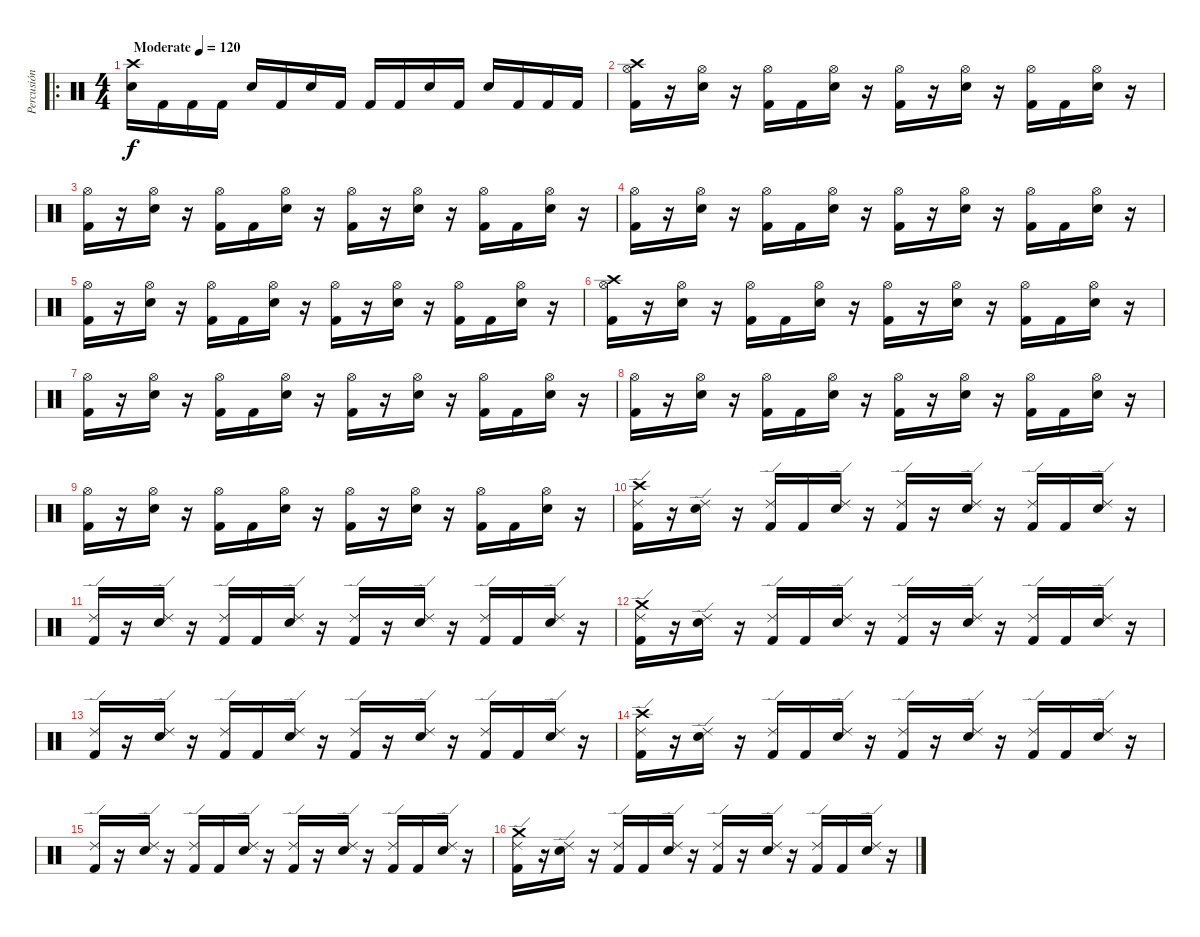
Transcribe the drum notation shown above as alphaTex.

\track ("Percusión" "Percusión") {instrument percussion}
\staff {score}
\articulation defaults
\ro
\ts (4 4)
\tempo (120 "Moderate")
\clef neutral
\ks c
("Crash high (hit)" "Electric Snare (hit)").16{dy f} "Kick (hit) 2".16 "Kick (hit) 2".16 "Kick (hit) 2".16 "Electric Snare (hit)".16 "Kick (hit) 2".16 "Electric Snare (hit)".16 "Kick (hit) 2".16 "Kick (hit) 2".16 "Kick (hit) 2".16 "Electric Snare (hit)".16 "Kick (hit) 2".16 "Electric Snare (hit)".16 "Kick (hit) 2".16 "Kick (hit) 2".16 "Kick (hit) 2".16 |
("Crash high (hit)" "Hi-Hat (open)" "Kick (hit) 2").16 r.16 ("Hi-Hat (open)" "Electric Snare (hit)").16 r.16 ("Hi-Hat (open)" "Kick (hit) 2").16 "Kick (hit) 2".16 ("Hi-Hat (open)" "Electric Snare (hit)").16 r.16 ("Hi-Hat (open)" "Kick (hit) 2").16 r.16 ("Hi-Hat (open)" "Electric Snare (hit)").16 r.16 ("Hi-Hat (open)" "Kick (hit) 2").16 "Kick (hit) 2".16 ("Hi-Hat (open)" "Electric Snare (hit)").16 r.16 |
("Hi-Hat (open)" "Kick (hit) 2").16 r.16 ("Hi-Hat (open)" "Electric Snare (hit)").16 r.16 ("Hi-Hat (open)" "Kick (hit) 2").16 "Kick (hit) 2".16 ("Hi-Hat (open)" "Electric Snare (hit)").16 r.16 ("Hi-Hat (open)" "Kick (hit) 2").16 r.16 ("Hi-Hat (open)" "Electric Snare (hit)").16 r.16 ("Hi-Hat (open)" "Kick (hit) 2").16 "Kick (hit) 2".16 ("Hi-Hat (open)" "Electric Snare (hit)").16 r.16 |
("Hi-Hat (open)" "Kick (hit) 2").16 r.16 ("Hi-Hat (open)" "Electric Snare (hit)").16 r.16 ("Hi-Hat (open)" "Kick (hit) 2").16 "Kick (hit) 2".16 ("Hi-Hat (open)" "Electric Snare (hit)").16 r.16 ("Hi-Hat (open)" "Kick (hit) 2").16 r.16 ("Hi-Hat (open)" "Electric Snare (hit)").16 r.16 ("Hi-Hat (open)" "Kick (hit) 2").16 "Kick (hit) 2".16 ("Hi-Hat (open)" "Electric Snare (hit)").16 r.16 |
("Hi-Hat (open)" "Kick (hit) 2").16 r.16 ("Hi-Hat (open)" "Electric Snare (hit)").16 r.16 ("Hi-Hat (open)" "Kick (hit) 2").16 "Kick (hit) 2".16 ("Hi-Hat (open)" "Electric Snare (hit)").16 r.16 ("Hi-Hat (open)" "Kick (hit) 2").16 r.16 ("Hi-Hat (open)" "Electric Snare (hit)").16 r.16 ("Hi-Hat (open)" "Kick (hit) 2").16 "Kick (hit) 2".16 ("Hi-Hat (open)" "Electric Snare (hit)").16 r.16 |
("Crash high (hit)" "Hi-Hat (open)" "Kick (hit) 2").16 r.16 ("Hi-Hat (open)" "Electric Snare (hit)").16 r.16 ("Hi-Hat (open)" "Kick (hit) 2").16 "Kick (hit) 2".16 ("Hi-Hat (open)" "Electric Snare (hit)").16 r.16 ("Hi-Hat (open)" "Kick (hit) 2").16 r.16 ("Hi-Hat (open)" "Electric Snare (hit)").16 r.16 ("Hi-Hat (open)" "Kick (hit) 2").16 "Kick (hit) 2".16 ("Hi-Hat (open)" "Electric Snare (hit)").16 r.16 |
("Hi-Hat (open)" "Kick (hit) 2").16 r.16 ("Hi-Hat (open)" "Electric Snare (hit)").16 r.16 ("Hi-Hat (open)" "Kick (hit) 2").16 "Kick (hit) 2".16 ("Hi-Hat (open)" "Electric Snare (hit)").16 r.16 ("Hi-Hat (open)" "Kick (hit) 2").16 r.16 ("Hi-Hat (open)" "Electric Snare (hit)").16 r.16 ("Hi-Hat (open)" "Kick (hit) 2").16 "Kick (hit) 2".16 ("Hi-Hat (open)" "Electric Snare (hit)").16 r.16 |
("Hi-Hat (open)" "Kick (hit) 2").16 r.16 ("Hi-Hat (open)" "Electric Snare (hit)").16 r.16 ("Hi-Hat (open)" "Kick (hit) 2").16 "Kick (hit) 2".16 ("Hi-Hat (open)" "Electric Snare (hit)").16 r.16 ("Hi-Hat (open)" "Kick (hit) 2").16 r.16 ("Hi-Hat (open)" "Electric Snare (hit)").16 r.16 ("Hi-Hat (open)" "Kick (hit) 2").16 "Kick (hit) 2".16 ("Hi-Hat (open)" "Electric Snare (hit)").16 r.16 |
("Hi-Hat (open)" "Kick (hit) 2").16 r.16 ("Hi-Hat (open)" "Electric Snare (hit)").16 r.16 ("Hi-Hat (open)" "Kick (hit) 2").16 "Kick (hit) 2".16 ("Hi-Hat (open)" "Electric Snare (hit)").16 r.16 ("Hi-Hat (open)" "Kick (hit) 2").16 r.16 ("Hi-Hat (open)" "Electric Snare (hit)").16 r.16 ("Hi-Hat (open)" "Kick (hit) 2").16 "Kick (hit) 2".16 ("Hi-Hat (open)" "Electric Snare (hit)").16 r.16 |
("Crash high (hit)" "Ride (edge) 2" "Kick (hit) 2").16 r.16 ("Ride (edge) 2" "Electric Snare (hit)").16 r.16 ("Ride (edge) 2" "Kick (hit) 2").16 "Kick (hit) 2".16 ("Ride (edge) 2" "Electric Snare (hit)").16 r.16 ("Ride (edge) 2" "Kick (hit) 2").16 r.16 ("Ride (edge) 2" "Electric Snare (hit)").16 r.16 ("Ride (edge) 2" "Kick (hit) 2").16 "Kick (hit) 2".16 ("Ride (edge) 2" "Electric Snare (hit)").16 r.16 |
("Ride (edge) 2" "Kick (hit) 2").16 r.16 ("Ride (edge) 2" "Electric Snare (hit)").16 r.16 ("Ride (edge) 2" "Kick (hit) 2").16 "Kick (hit) 2".16 ("Ride (edge) 2" "Electric Snare (hit)").16 r.16 ("Ride (edge) 2" "Kick (hit) 2").16 r.16 ("Ride (edge) 2" "Electric Snare (hit)").16 r.16 ("Ride (edge) 2" "Kick (hit) 2").16 "Kick (hit) 2".16 ("Ride (edge) 2" "Electric Snare (hit)").16 r.16 |
("Crash medium (hit)" "Ride (edge) 2" "Kick (hit) 2").16 r.16 ("Ride (edge) 2" "Electric Snare (hit)").16 r.16 ("Ride (edge) 2" "Kick (hit) 2").16 "Kick (hit) 2".16 ("Ride (edge) 2" "Electric Snare (hit)").16 r.16 ("Ride (edge) 2" "Kick (hit) 2").16 r.16 ("Ride (edge) 2" "Electric Snare (hit)").16 r.16 ("Ride (edge) 2" "Kick (hit) 2").16 "Kick (hit) 2".16 ("Ride (edge) 2" "Electric Snare (hit)").16 r.16 |
("Ride (edge) 2" "Kick (hit) 2").16 r.16 ("Ride (edge) 2" "Electric Snare (hit)").16 r.16 ("Ride (edge) 2" "Kick (hit) 2").16 "Kick (hit) 2".16 ("Ride (edge) 2" "Electric Snare (hit)").16 r.16 ("Ride (edge) 2" "Kick (hit) 2").16 r.16 ("Ride (edge) 2" "Electric Snare (hit)").16 r.16 ("Kick (hit) 2" "Ride (edge) 2").16 "Kick (hit) 2".16 ("Ride (edge) 2" "Electric Snare (hit)").16 r.16 |
("Crash high (hit)" "Ride (edge) 2" "Kick (hit) 2").16 r.16 ("Ride (edge) 2" "Electric Snare (hit)").16 r.16 ("Ride (edge) 2" "Kick (hit) 2").16 "Kick (hit) 2".16 ("Ride (edge) 2" "Electric Snare (hit)").16 r.16 ("Ride (edge) 2" "Kick (hit) 2").16 r.16 ("Ride (edge) 2" "Electric Snare (hit)").16 r.16 ("Ride (edge) 2" "Kick (hit) 2").16 "Kick (hit) 2".16 ("Ride (edge) 2" "Electric Snare (hit)").16 r.16 |
("Ride (edge) 2" "Kick (hit) 2").16 r.16 ("Ride (edge) 2" "Electric Snare (hit)").16 r.16 ("Ride (edge) 2" "Kick (hit) 2").16 "Kick (hit) 2".16 ("Ride (edge) 2" "Electric Snare (hit)").16 r.16 ("Ride (edge) 2" "Kick (hit) 2").16 r.16 ("Ride (edge) 2" "Electric Snare (hit)").16 r.16 ("Ride (edge) 2" "Kick (hit) 2").16 "Kick (hit) 2".16 ("Ride (edge) 2" "Electric Snare (hit)").16 r.16 |
("Crash medium (hit)" "Ride (edge) 2" "Kick (hit) 2").16 r.16 ("Ride (edge) 2" "Electric Snare (hit)").16 r.16 ("Ride (edge) 2" "Kick (hit) 2").16 "Kick (hit) 2".16 ("Ride (edge) 2" "Electric Snare (hit)").16 r.16 ("Ride (edge) 2" "Kick (hit) 2").16 r.16 ("Ride (edge) 2" "Electric Snare (hit)").16 r.16 ("Ride (edge) 2" "Kick (hit) 2").16 "Kick (hit) 2".16 ("Ride (edge) 2" "Electric Snare (hit)").16 r.16
